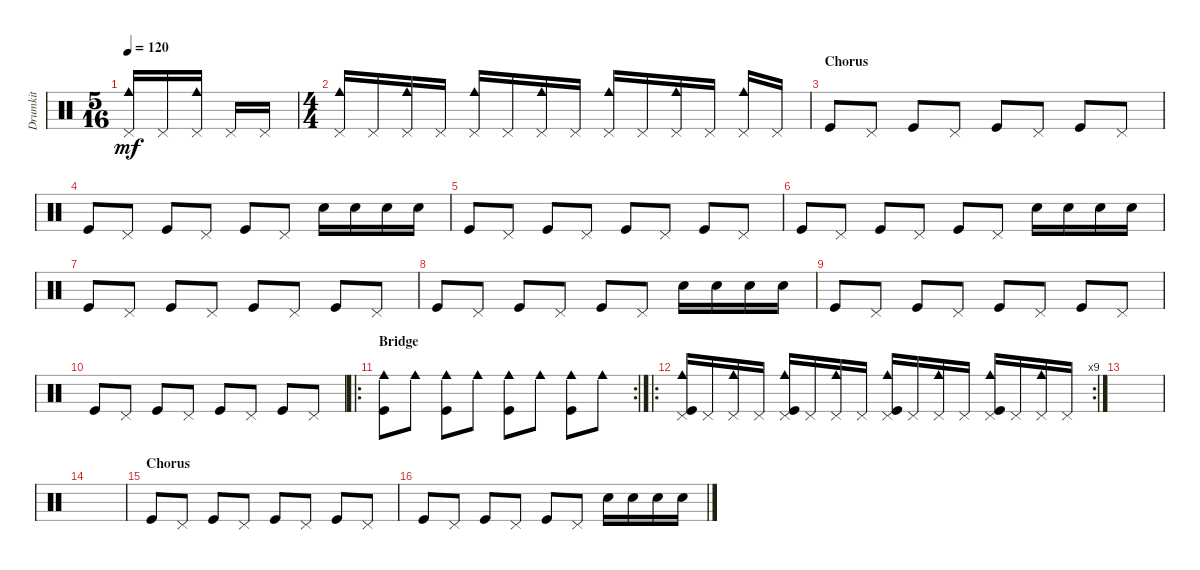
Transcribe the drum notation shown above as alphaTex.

\track ("Drumkit" "Drumkit") {instrument percussion}
\staff {score}
\articulation defaults
\ts (5 16)
\tempo 120
\clef neutral
\ks c
("Cowbell medium (hit)" "Pedal Hi-Hat (hit)").16{dy mf} "Pedal Hi-Hat (hit)".16 ("Pedal Hi-Hat (hit)" "Cowbell medium (hit)").16 "Pedal Hi-Hat (hit)".16 "Pedal Hi-Hat (hit)".16 |
\ts (4 4)
("Cowbell medium (hit)" "Pedal Hi-Hat (hit)").16 "Pedal Hi-Hat (hit)".16 ("Cowbell medium (hit)" "Pedal Hi-Hat (hit)").16 "Pedal Hi-Hat (hit)".16 ("Cowbell medium (hit)" "Pedal Hi-Hat (hit)").16 "Pedal Hi-Hat (hit)".16 ("Pedal Hi-Hat (hit)" "Cowbell medium (hit)").16 "Pedal Hi-Hat (hit)".16 ("Pedal Hi-Hat (hit)" "Cowbell medium (hit)").16 "Pedal Hi-Hat (hit)".16 ("Pedal Hi-Hat (hit)" "Cowbell medium (hit)").16 "Pedal Hi-Hat (hit)".16 ("Pedal Hi-Hat (hit)" "Cowbell medium (hit)").16 "Pedal Hi-Hat (hit)".16 |
\section ("" "Chorus")
"Kick (hit)".8 "Pedal Hi-Hat (hit)".8 "Kick (hit)".8 "Pedal Hi-Hat (hit)".8 "Kick (hit)".8 "Pedal Hi-Hat (hit)".8 "Kick (hit)".8 "Pedal Hi-Hat (hit)".8 |
"Kick (hit)".8 "Pedal Hi-Hat (hit)".8 "Kick (hit)".8 "Pedal Hi-Hat (hit)".8 "Kick (hit)".8 "Pedal Hi-Hat (hit)".8 "Snare (hit) 2".16 "Snare (hit) 2".16 "Snare (hit) 2".16 "Snare (hit) 2".16 |
"Kick (hit)".8 "Pedal Hi-Hat (hit)".8 "Kick (hit)".8 "Pedal Hi-Hat (hit)".8 "Kick (hit)".8 "Pedal Hi-Hat (hit)".8 "Kick (hit)".8 "Pedal Hi-Hat (hit)".8 |
"Kick (hit)".8 "Pedal Hi-Hat (hit)".8 "Kick (hit)".8 "Pedal Hi-Hat (hit)".8 "Kick (hit)".8 "Pedal Hi-Hat (hit)".8 "Snare (hit) 2".16 "Snare (hit) 2".16 "Snare (hit) 2".16 "Snare (hit) 2".16 |
"Kick (hit)".8 "Pedal Hi-Hat (hit)".8 "Kick (hit)".8 "Pedal Hi-Hat (hit)".8 "Kick (hit)".8 "Pedal Hi-Hat (hit)".8 "Kick (hit)".8 "Pedal Hi-Hat (hit)".8 |
"Kick (hit)".8 "Pedal Hi-Hat (hit)".8 "Kick (hit)".8 "Pedal Hi-Hat (hit)".8 "Kick (hit)".8 "Pedal Hi-Hat (hit)".8 "Snare (hit) 2".16 "Snare (hit) 2".16 "Snare (hit) 2".16 "Snare (hit) 2".16 |
"Kick (hit)".8 "Pedal Hi-Hat (hit)".8 "Kick (hit)".8 "Pedal Hi-Hat (hit)".8 "Kick (hit)".8 "Pedal Hi-Hat (hit)".8 "Kick (hit)".8 "Pedal Hi-Hat (hit)".8 |
"Kick (hit)".8 "Pedal Hi-Hat (hit)".8 "Kick (hit)".8 "Pedal Hi-Hat (hit)".8 "Kick (hit)".8 "Pedal Hi-Hat (hit)".8 "Kick (hit)".8 "Pedal Hi-Hat (hit)".8 |
\ro
\rc 2
\section ("" "Bridge")
("Kick (hit)" "Cowbell medium (hit)").8 "Cowbell medium (hit)".8 ("Kick (hit)" "Cowbell medium (hit)").8 "Cowbell medium (hit)".8 ("Kick (hit)" "Cowbell medium (hit)").8 "Cowbell medium (hit)".8 ("Kick (hit)" "Cowbell medium (hit)").8 "Cowbell medium (hit)".8 |
\ro
\rc 9
("Cowbell medium (hit)" "Pedal Hi-Hat (hit)" "Kick (hit)").16 "Pedal Hi-Hat (hit)".16 ("Cowbell medium (hit)" "Pedal Hi-Hat (hit)").16 "Pedal Hi-Hat (hit)".16 ("Cowbell medium (hit)" "Pedal Hi-Hat (hit)" "Kick (hit)").16 "Pedal Hi-Hat (hit)".16 ("Cowbell medium (hit)" "Pedal Hi-Hat (hit)").16 "Pedal Hi-Hat (hit)".16 ("Cowbell medium (hit)" "Pedal Hi-Hat (hit)" "Kick (hit)").16 "Pedal Hi-Hat (hit)".16 ("Cowbell medium (hit)" "Pedal Hi-Hat (hit)").16 "Pedal Hi-Hat (hit)".16 ("Cowbell medium (hit)" "Pedal Hi-Hat (hit)" "Kick (hit)").16 "Pedal Hi-Hat (hit)".16 ("Cowbell medium (hit)" "Pedal Hi-Hat (hit)").16 "Pedal Hi-Hat (hit)".16 |
|
|
\section ("" "Chorus")
"Kick (hit)".8 "Pedal Hi-Hat (hit)".8 "Kick (hit)".8 "Pedal Hi-Hat (hit)".8 "Kick (hit)".8 "Pedal Hi-Hat (hit)".8 "Kick (hit)".8 "Pedal Hi-Hat (hit)".8 |
"Kick (hit)".8 "Pedal Hi-Hat (hit)".8 "Kick (hit)".8 "Pedal Hi-Hat (hit)".8 "Kick (hit)".8 "Pedal Hi-Hat (hit)".8 "Snare (hit) 2".16 "Snare (hit) 2".16 "Snare (hit) 2".16 "Snare (hit) 2".16
